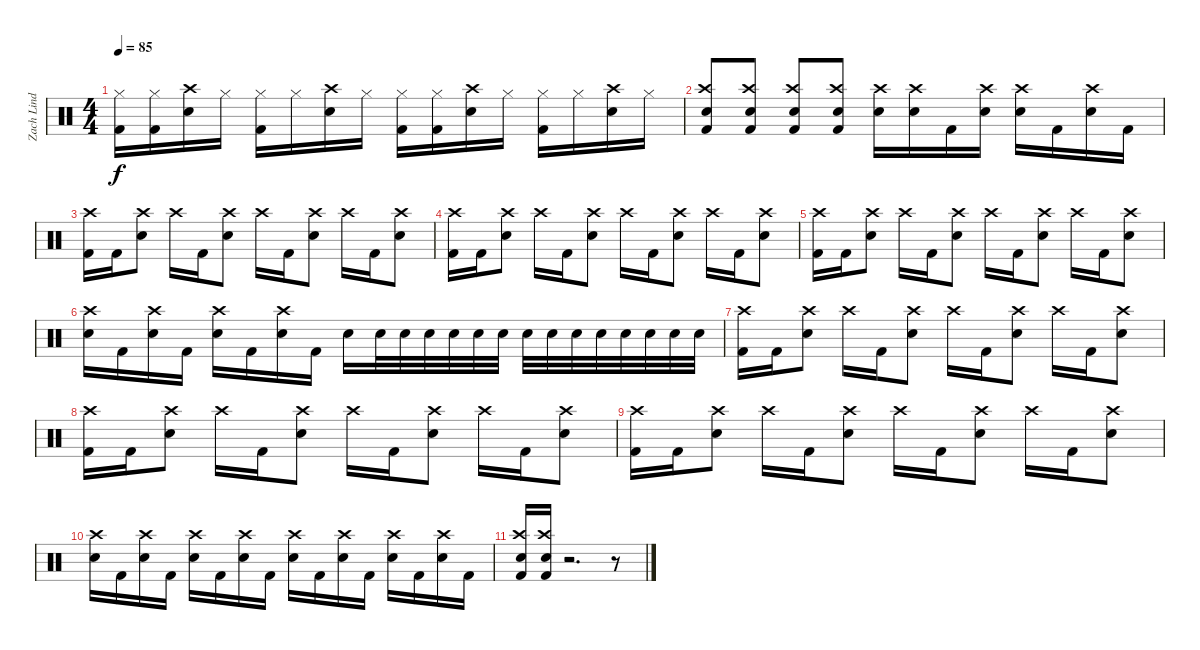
\track ("Zach Lind" "Zach Lind") {instrument percussion}
\staff {score}
\articulation defaults
\ts (4 4)
\tempo 85
\clef neutral
\ks c
("Hi-Hat (closed)" "Kick (hit) 2").16{dy f} ("Hi-Hat (closed)" "Kick (hit) 2").16 ("Crash high (hit)" "Snare (hit) 2").16 "Hi-Hat (closed)".16 ("Hi-Hat (closed)" "Kick (hit) 2").16 "Hi-Hat (closed)".16 ("Crash high (hit)" "Snare (hit) 2").16 "Hi-Hat (closed)".16 ("Hi-Hat (closed)" "Kick (hit) 2").16 ("Hi-Hat (closed)" "Kick (hit) 2").16 ("Crash high (hit)" "Snare (hit) 2").16 "Hi-Hat (closed)".16 ("Hi-Hat (closed)" "Kick (hit) 2").16 "Hi-Hat (closed)".16 ("Crash high (hit)" "Snare (hit) 2").16 "Hi-Hat (closed)".16 |
("Crash high (hit)" "Snare (hit) 2" "Kick (hit) 2").8 ("Crash high (hit)" "Snare (hit) 2" "Kick (hit) 2").8 ("Crash high (hit)" "Snare (hit) 2" "Kick (hit) 2").8 ("Crash high (hit)" "Snare (hit) 2" "Kick (hit) 2").8 ("Crash high (hit)" "Snare (hit) 2").16 ("Crash high (hit)" "Snare (hit) 2").16 "Kick (hit) 2".16 ("Crash high (hit)" "Snare (hit) 2").16 ("Crash high (hit)" "Snare (hit) 2").16 "Kick (hit) 2".16 ("Crash high (hit)" "Snare (hit) 2").16 "Kick (hit) 2".16 |
("Crash high (hit)" "Kick (hit) 2").16 "Kick (hit) 2".16 ("Crash high (hit)" "Snare (hit) 2").8 "Crash high (hit)".16 "Kick (hit) 2".16 ("Crash high (hit)" "Snare (hit) 2").8 "Crash high (hit)".16 "Kick (hit) 2".16 ("Crash high (hit)" "Snare (hit) 2").8 "Crash high (hit)".16 "Kick (hit) 2".16 ("Crash high (hit)" "Snare (hit) 2").8 |
("Crash high (hit)" "Kick (hit) 2").16 "Kick (hit) 2".16 ("Crash high (hit)" "Snare (hit) 2").8 "Crash high (hit)".16 "Kick (hit) 2".16 ("Crash high (hit)" "Snare (hit) 2").8 "Crash high (hit)".16 "Kick (hit) 2".16 ("Crash high (hit)" "Snare (hit) 2").8 "Crash high (hit)".16 "Kick (hit) 2".16 ("Crash high (hit)" "Snare (hit) 2").8 |
("Crash high (hit)" "Kick (hit) 2").16 "Kick (hit) 2".16 ("Crash high (hit)" "Snare (hit) 2").8 "Crash high (hit)".16 "Kick (hit) 2".16 ("Crash high (hit)" "Snare (hit) 2").8 "Crash high (hit)".16 "Kick (hit) 2".16 ("Crash high (hit)" "Snare (hit) 2").8 "Crash high (hit)".16 "Kick (hit) 2".16 ("Crash high (hit)" "Snare (hit) 2").8 |
("Crash high (hit)" "Snare (hit) 2").16 "Kick (hit) 2".16 ("Crash high (hit)" "Snare (hit) 2").16 "Kick (hit) 2".16 ("Crash high (hit)" "Snare (hit) 2").16 "Kick (hit) 2".16 ("Crash high (hit)" "Snare (hit) 2").16 "Kick (hit) 2".16 "Snare (hit) 2".16 "Snare (hit) 2".32 "Snare (hit) 2".32 "Snare (hit) 2".32 "Snare (hit) 2".32 "Snare (hit) 2".32 "Snare (hit) 2".32 "Snare (hit) 2".32 "Snare (hit) 2".32 "Snare (hit) 2".32 "Snare (hit) 2".32 "Snare (hit) 2".32 "Snare (hit) 2".32 "Snare (hit) 2".32 "Snare (hit) 2".32 |
("Crash high (hit)" "Kick (hit) 2").16 "Kick (hit) 2".16 ("Crash high (hit)" "Snare (hit) 2").8 "Crash high (hit)".16 "Kick (hit) 2".16 ("Crash high (hit)" "Snare (hit) 2").8 "Crash high (hit)".16 "Kick (hit) 2".16 ("Crash high (hit)" "Snare (hit) 2").8 "Crash high (hit)".16 "Kick (hit) 2".16 ("Crash high (hit)" "Snare (hit) 2").8 |
("Crash high (hit)" "Kick (hit) 2").16 "Kick (hit) 2".16 ("Crash high (hit)" "Snare (hit) 2").8 "Crash high (hit)".16 "Kick (hit) 2".16 ("Crash high (hit)" "Snare (hit) 2").8 "Crash high (hit)".16 "Kick (hit) 2".16 ("Crash high (hit)" "Snare (hit) 2").8 "Crash high (hit)".16 "Kick (hit) 2".16 ("Crash high (hit)" "Snare (hit) 2").8 |
("Crash high (hit)" "Kick (hit) 2").16 "Kick (hit) 2".16 ("Crash high (hit)" "Snare (hit) 2").8 "Crash high (hit)".16 "Kick (hit) 2".16 ("Crash high (hit)" "Snare (hit) 2").8 "Crash high (hit)".16 "Kick (hit) 2".16 ("Crash high (hit)" "Snare (hit) 2").8 "Crash high (hit)".16 "Kick (hit) 2".16 ("Crash high (hit)" "Snare (hit) 2").8 |
("Crash high (hit)" "Snare (hit) 2").16 "Kick (hit) 2".16 ("Crash high (hit)" "Snare (hit) 2").16 "Kick (hit) 2".16 ("Crash high (hit)" "Snare (hit) 2").16 "Kick (hit) 2".16 ("Crash high (hit)" "Snare (hit) 2").16 "Kick (hit) 2".16 ("Crash high (hit)" "Snare (hit) 2").16 "Kick (hit) 2".16 ("Crash high (hit)" "Snare (hit) 2").16 "Kick (hit) 2".16 ("Crash high (hit)" "Snare (hit) 2").16 "Kick (hit) 2".16 ("Crash high (hit)" "Snare (hit) 2").16 "Kick (hit) 2".16 |
("Crash high (hit)" "Snare (hit) 2" "Kick (hit) 2").16 ("Crash high (hit)" "Snare (hit) 2" "Kick (hit) 2").16 r.2{d} r.8
